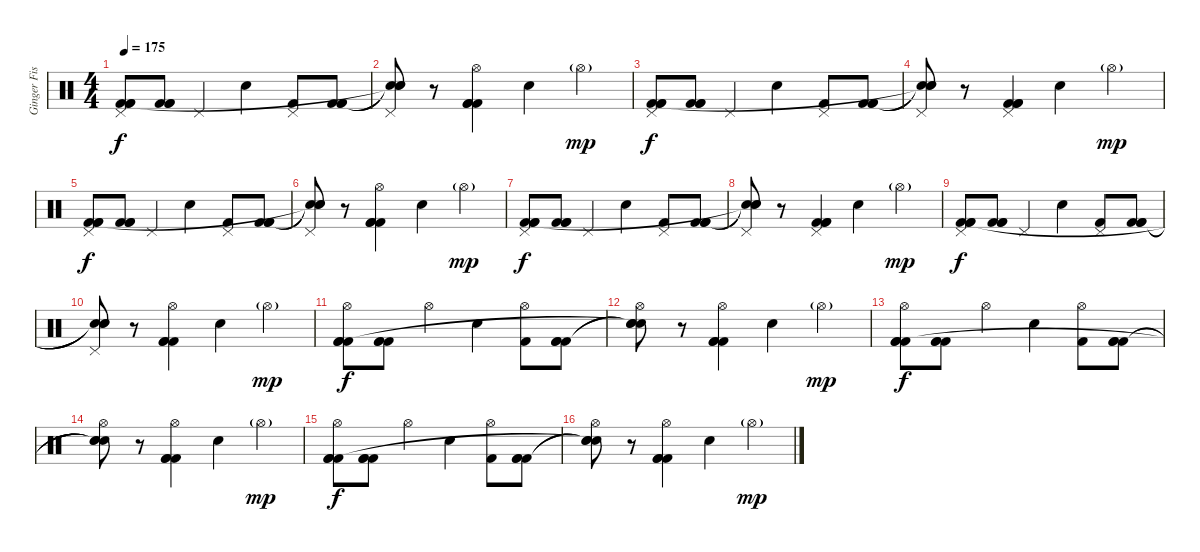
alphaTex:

\track ("Ginger Fish" "Ginger Fis") {instrument percussion}
\staff {score}
\articulation defaults
\ts (4 4)
\tempo 175
\clef neutral
\ks c
("Pedal Hi-Hat (hit)" "Kick (hit) 2" "Kick (hit) 2" "Kick (hit) 2").8{dy f} ("Kick (hit) 2" "Kick (hit) 2" "Kick (hit) 2").8 "Pedal Hi-Hat (hit)".4 "Snare (hit) 2".4 ("Pedal Hi-Hat (hit)" "Kick (hit) 2").8 ("Kick (hit) 2" "Kick (hit) 2" "Kick (hit) 2").8 |
("Pedal Hi-Hat (hit)" "Snare (hit)"{t} "Snare (hit)"{t} "Snare (hit)"{t}).8 r.8 ("Hi-Hat (open)" "Kick (hit) 2" "Kick (hit) 2" "Kick (hit) 2").4 "Snare (hit) 2".4 "Hi-Hat (open)"{g}.4{dy mp} |
("Pedal Hi-Hat (hit)" "Kick (hit) 2" "Kick (hit) 2" "Kick (hit) 2").8{dy f} ("Kick (hit) 2" "Kick (hit) 2" "Kick (hit) 2").8 "Pedal Hi-Hat (hit)".4 "Snare (hit) 2".4 ("Pedal Hi-Hat (hit)" "Kick (hit) 2").8 ("Kick (hit) 2" "Kick (hit) 2" "Kick (hit) 2").8 |
("Pedal Hi-Hat (hit)" "Snare (hit)"{t} "Snare (hit)"{t} "Snare (hit)"{t}).8 r.8 ("Pedal Hi-Hat (hit)" "Kick (hit) 2" "Kick (hit) 2" "Kick (hit) 2").4 "Snare (hit) 2".4 "Hi-Hat (open)"{g}.4{dy mp} |
("Pedal Hi-Hat (hit)" "Kick (hit) 2" "Kick (hit) 2" "Kick (hit) 2").8{dy f} ("Kick (hit) 2" "Kick (hit) 2" "Kick (hit) 2").8 "Pedal Hi-Hat (hit)".4 "Snare (hit) 2".4 ("Pedal Hi-Hat (hit)" "Kick (hit) 2").8 ("Kick (hit) 2" "Kick (hit) 2" "Kick (hit) 2").8 |
("Pedal Hi-Hat (hit)" "Snare (hit)"{t} "Snare (hit)"{t} "Snare (hit)"{t}).8 r.8 ("Hi-Hat (open)" "Kick (hit) 2" "Kick (hit) 2" "Kick (hit) 2").4 "Snare (hit) 2".4 "Hi-Hat (open)"{g}.4{dy mp} |
("Pedal Hi-Hat (hit)" "Kick (hit) 2" "Kick (hit) 2" "Kick (hit) 2").8{dy f} ("Kick (hit) 2" "Kick (hit) 2" "Kick (hit) 2").8 "Pedal Hi-Hat (hit)".4 "Snare (hit) 2".4 ("Pedal Hi-Hat (hit)" "Kick (hit) 2").8 ("Kick (hit) 2" "Kick (hit) 2" "Kick (hit) 2").8 |
("Pedal Hi-Hat (hit)" "Snare (hit)"{t} "Snare (hit)"{t} "Snare (hit)"{t}).8 r.8 ("Pedal Hi-Hat (hit)" "Kick (hit) 2" "Kick (hit) 2" "Kick (hit) 2").4 "Snare (hit) 2".4 "Hi-Hat (open)"{g}.4{dy mp} |
("Pedal Hi-Hat (hit)" "Kick (hit) 2" "Kick (hit) 2" "Kick (hit) 2").8{dy f} ("Kick (hit) 2" "Kick (hit) 2" "Kick (hit) 2").8 "Pedal Hi-Hat (hit)".4 "Snare (hit) 2".4 ("Pedal Hi-Hat (hit)" "Kick (hit) 2").8 ("Kick (hit) 2" "Kick (hit) 2" "Kick (hit) 2").8 |
("Pedal Hi-Hat (hit)" "Snare (hit)"{t} "Snare (hit)"{t} "Snare (hit)"{t}).8 r.8 ("Hi-Hat (open)" "Kick (hit) 2" "Kick (hit) 2" "Kick (hit) 2").4 "Snare (hit) 2".4 "Hi-Hat (open)"{g}.4{dy mp} |
("Hi-Hat (open)" "Kick (hit) 2" "Kick (hit) 2" "Kick (hit) 2").8{dy f} ("Kick (hit) 2" "Kick (hit) 2" "Kick (hit) 2").8 "Hi-Hat (open)".4 "Snare (hit) 2".4 ("Hi-Hat (open)" "Kick (hit) 2").8 ("Kick (hit) 2" "Kick (hit) 2" "Kick (hit) 2").8 |
("Hi-Hat (open)" "Snare (hit)"{t} "Snare (hit)"{t} "Snare (hit)"{t}).8 r.8 ("Hi-Hat (open)" "Kick (hit) 2" "Kick (hit) 2" "Kick (hit) 2").4 "Snare (hit) 2".4 "Hi-Hat (open)"{g}.4{dy mp} |
("Hi-Hat (open)" "Kick (hit) 2" "Kick (hit) 2" "Kick (hit) 2").8{dy f} ("Kick (hit) 2" "Kick (hit) 2" "Kick (hit) 2").8 "Hi-Hat (open)".4 "Snare (hit) 2".4 ("Hi-Hat (open)" "Kick (hit) 2").8 ("Kick (hit) 2" "Kick (hit) 2" "Kick (hit) 2").8 |
("Hi-Hat (open)" "Snare (hit)"{t} "Snare (hit)"{t} "Snare (hit)"{t}).8 r.8 ("Hi-Hat (open)" "Kick (hit) 2" "Kick (hit) 2" "Kick (hit) 2").4 "Snare (hit) 2".4 "Hi-Hat (open)"{g}.4{dy mp} |
("Hi-Hat (open)" "Kick (hit) 2" "Kick (hit) 2" "Kick (hit) 2").8{dy f} ("Kick (hit) 2" "Kick (hit) 2" "Kick (hit) 2").8 "Hi-Hat (open)".4 "Snare (hit) 2".4 ("Hi-Hat (open)" "Kick (hit) 2").8 ("Kick (hit) 2" "Kick (hit) 2" "Kick (hit) 2").8 |
("Hi-Hat (open)" "Snare (hit)"{t} "Snare (hit)"{t} "Snare (hit)"{t}).8 r.8 ("Hi-Hat (open)" "Kick (hit) 2" "Kick (hit) 2" "Kick (hit) 2").4 "Snare (hit) 2".4 "Hi-Hat (open)"{g}.4{dy mp}
